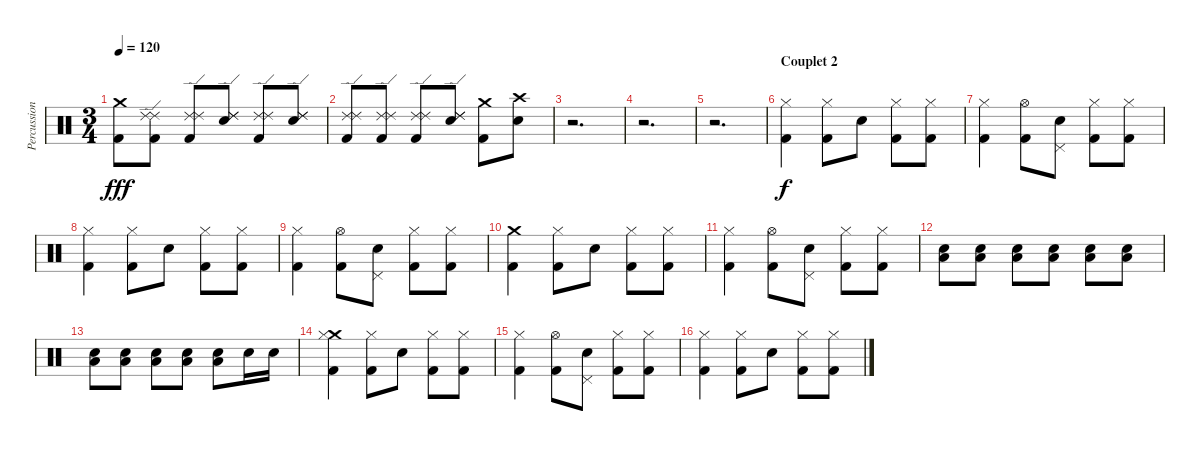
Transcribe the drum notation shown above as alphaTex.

\track ("Percussions" "Percussion") {instrument percussion}
\staff {score}
\articulation defaults
\ts (3 4)
\tempo 120
\clef neutral
\ks c
("Crash medium (hit)" "Kick (hit) 2").8{dy fff} ("Ride (edge) 2" "Ride (edge) 2" "Kick (hit) 2").8 ("Ride (edge) 2" "Ride (edge) 2" "Kick (hit) 2").8 ("Ride (edge) 2" "Ride (edge) 2" "Snare (hit) 2").8 ("Ride (edge) 2" "Ride (edge) 2" "Kick (hit) 2").8 ("Ride (edge) 2" "Ride (edge) 2" "Snare (hit) 2").8 |
("Ride (edge) 2" "Ride (edge) 2" "Kick (hit) 2").8 ("Ride (edge) 2" "Ride (edge) 2" "Kick (hit) 2").8 ("Ride (edge) 2" "Ride (edge) 2" "Kick (hit) 2").8 ("Ride (edge) 2" "Ride (edge) 2" "Snare (hit) 2").8 ("Crash medium (hit)" "Kick (hit) 2").8 ("Crash high (hit)" "Snare (hit) 2").8 |
r.2{d} |
r.2{d} |
r.2{d} |
\section ("" "Couplet 2")
("Hi-Hat (closed)" "Kick (hit) 2").4{dy f} ("Hi-Hat (closed)" "Kick (hit) 2").8 "Snare (hit) 2".8 ("Hi-Hat (closed)" "Kick (hit) 2").8 ("Hi-Hat (closed)" "Kick (hit) 2").8 |
("Hi-Hat (closed)" "Kick (hit) 2").4 ("Hi-Hat (open)" "Kick (hit) 2").8 ("Pedal Hi-Hat (hit)" "Snare (hit) 2").8 ("Hi-Hat (closed)" "Kick (hit) 2").8 ("Hi-Hat (closed)" "Kick (hit) 2").8 |
("Hi-Hat (closed)" "Kick (hit) 2").4 ("Hi-Hat (closed)" "Kick (hit) 2").8 "Snare (hit) 2".8 ("Hi-Hat (closed)" "Kick (hit) 2").8 ("Hi-Hat (closed)" "Kick (hit) 2").8 |
("Hi-Hat (closed)" "Kick (hit) 2").4 ("Hi-Hat (open)" "Kick (hit) 2").8 ("Pedal Hi-Hat (hit)" "Snare (hit) 2").8 ("Hi-Hat (closed)" "Kick (hit) 2").8 ("Hi-Hat (closed)" "Kick (hit) 2").8 |
("Crash medium (hit)" "Kick (hit) 2").4 ("Hi-Hat (closed)" "Kick (hit) 2").8 "Snare (hit) 2".8 ("Hi-Hat (closed)" "Kick (hit) 2").8 ("Hi-Hat (closed)" "Kick (hit) 2").8 |
("Hi-Hat (closed)" "Kick (hit) 2").4 ("Hi-Hat (open)" "Kick (hit) 2").8 ("Pedal Hi-Hat (hit)" "Snare (hit) 2").8 ("Hi-Hat (closed)" "Kick (hit) 2").8 ("Hi-Hat (closed)" "Kick (hit) 2").8 |
("Snare (hit) 2" "Low Floor Tom (hit)").8{volume 4} ("Snare (hit) 2" "Low Floor Tom (hit)").8{volume 13} ("Snare (hit) 2" "Low Floor Tom (hit)").8 ("Snare (hit) 2" "Low Floor Tom (hit)").8 ("Snare (hit) 2" "Low Floor Tom (hit)").8 ("Snare (hit) 2" "Low Floor Tom (hit)").8 |
("Snare (hit) 2" "Low Floor Tom (hit)").8 ("Snare (hit) 2" "Low Floor Tom (hit)").8 ("Snare (hit) 2" "Low Floor Tom (hit)").8 ("Snare (hit) 2" "Low Floor Tom (hit)").8 ("Snare (hit) 2" "Low Floor Tom (hit)").8 "Snare (hit) 2".16 "Snare (hit) 2".16 |
("Crash medium (hit)" "Hi-Hat (closed)" "Kick (hit) 2").4 ("Hi-Hat (closed)" "Kick (hit) 2").8 "Snare (hit) 2".8 ("Hi-Hat (closed)" "Kick (hit) 2").8 ("Hi-Hat (closed)" "Kick (hit) 2").8 |
("Hi-Hat (closed)" "Kick (hit) 2").4 ("Hi-Hat (open)" "Kick (hit) 2").8 ("Pedal Hi-Hat (hit)" "Snare (hit) 2").8 ("Hi-Hat (closed)" "Kick (hit) 2").8 ("Hi-Hat (closed)" "Kick (hit) 2").8 |
("Hi-Hat (closed)" "Kick (hit) 2").4 ("Hi-Hat (closed)" "Kick (hit) 2").8 "Snare (hit) 2".8 ("Hi-Hat (closed)" "Kick (hit) 2").8 ("Hi-Hat (closed)" "Kick (hit) 2").8
